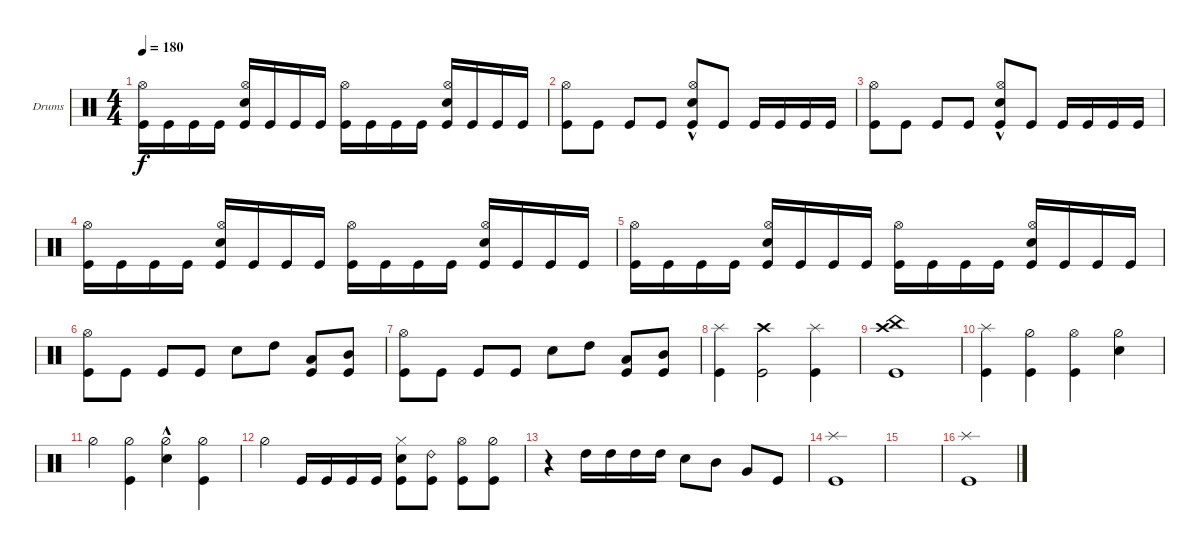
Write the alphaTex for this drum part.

\defaultSystemsLayout 4
\bracketExtendMode groupsimilarinstruments
\firstSystemTrackNameOrientation horizontal
\otherSystemsTrackNameOrientation horizontal
\track ("Drumkit" "Drums") {instrument percussion}
\staff {score}
\articulation defaults
\ts (4 4)
\tempo 180
\clef neutral
\scale
0.333333
\ks c
("Kick (hit)" "Hi-Hat (open)").16{dy f} "Kick (hit)".16 "Kick (hit)".16 "Kick (hit)".16 ("Kick (hit)" "Hi-Hat (open)" "Snare (hit) 2").16 "Kick (hit)".16 "Kick (hit)".16 "Kick (hit)".16 ("Kick (hit)" "Hi-Hat (open)").16 "Kick (hit)".16 "Kick (hit)".16 "Kick (hit)".16 ("Kick (hit)" "Hi-Hat (open)" "Snare (hit) 2").16 "Kick (hit)".16 "Kick (hit)".16 "Kick (hit)".16 |
\scale
0.333333 ("Kick (hit)" "Hi-Hat (open)").8 "Kick (hit)".8 "Kick (hit)".8 "Kick (hit)".8 ("Kick (hit)" "Hi-Hat (open)" "Snare (hit) 2"{hac}).8 "Kick (hit)".8 "Kick (hit)".16 "Kick (hit)".16 "Kick (hit)".16 "Kick (hit)".16 |
\scale
0.333333 ("Kick (hit)" "Hi-Hat (open)").8 "Kick (hit)".8 "Kick (hit)".8 "Kick (hit)".8 ("Kick (hit)" "Hi-Hat (open)" "Snare (hit) 2"{hac}).8 "Kick (hit)".8 "Kick (hit)".16 "Kick (hit)".16 "Kick (hit)".16 "Kick (hit)".16 |
\scale
0.333333 ("Kick (hit)" "Hi-Hat (open)").16 "Kick (hit)".16 "Kick (hit)".16 "Kick (hit)".16 ("Kick (hit)" "Hi-Hat (open)" "Snare (hit) 2").16 "Kick (hit)".16 "Kick (hit)".16 "Kick (hit)".16 ("Kick (hit)" "Hi-Hat (open)").16 "Kick (hit)".16 "Kick (hit)".16 "Kick (hit)".16 ("Kick (hit)" "Hi-Hat (open)" "Snare (hit) 2").16 "Kick (hit)".16 "Kick (hit)".16 "Kick (hit)".16 |
\scale
0.333333 ("Kick (hit)" "Hi-Hat (open)").16 "Kick (hit)".16 "Kick (hit)".16 "Kick (hit)".16 ("Kick (hit)" "Hi-Hat (open)" "Snare (hit) 2").16 "Kick (hit)".16 "Kick (hit)".16 "Kick (hit)".16 ("Kick (hit)" "Hi-Hat (open)").16 "Kick (hit)".16 "Kick (hit)".16 "Kick (hit)".16 ("Kick (hit)" "Hi-Hat (open)" "Snare (hit) 2").16 "Kick (hit)".16 "Kick (hit)".16 "Kick (hit)".16 |
\scale
0.333333 ("Kick (hit)" "Hi-Hat (open)").8 "Kick (hit)".8 "Kick (hit)".8 "Kick (hit)".8 "Snare (hit) 2".8 "High Tom (hit)".8 ("Low Tom (hit)" "Kick (hit)").8 ("Mid Tom (hit)" "Kick (hit)").8 |
\scale
0.333333 ("Kick (hit)" "Hi-Hat (open)").8 "Kick (hit)".8 "Kick (hit)".8 "Kick (hit)".8 "Snare (hit) 2".8 "High Tom (hit)".8 ("Low Tom (hit)" "Kick (hit)").8 ("Mid Tom (hit)" "Kick (hit)").8 |
\scale
0.333333 ("Splash (hit)" "Kick (hit)").4 ("Crash high (hit)" "Kick (hit)").2 ("Kick (hit)" "Splash (hit)").4 |
\scale
0.333333 ("Kick (hit)" "Crash high (hit)" "China (hit)").1 |
\scale
0.333333 ("Splash (hit)" "Kick (hit)").4 ("Kick (hit)" "Hi-Hat (half)").4 ("Kick (hit)" "Hi-Hat (open)").4 ("Hi-Hat (half)" "Snare (hit) 2").4 |
\scale
0.333333 "Hi-Hat (half)".4 ("Kick (hit)" "Hi-Hat (half)").4 ("Snare (hit) 2"{hac} "Hi-Hat (half)").4 ("Hi-Hat (half)" "Kick (hit)").4 |
\scale
0.333333 "Hi-Hat (half)".4 "Kick (hit)".16 "Kick (hit)".16 "Kick (hit)".16 "Kick (hit)".16 ("Kick (hit)" "Hi-Hat (closed)" "Snare (hit) 2").8 ("Kick (hit)" "Ride (bell) 2").8 ("Hi-Hat (open)" "Kick (hit)").8 ("Kick (hit)" "Hi-Hat (half)").8 |
\scale
0.333333 r.4 "High Tom (hit)".16 "High Tom (hit)".16 "High Tom (hit)".16 "High Tom (hit)".16 "Snare (hit) 2".8 "Mid Tom (hit)".8 "Very Low Tom (hit)".8 "Kick (hit)".8 |
\scale
0.333333 ("Splash (hit)" "Kick (hit)").1 |
\scale
0.333333 |
\scale
0.333333 ("Splash (hit)" "Kick (hit)").1
